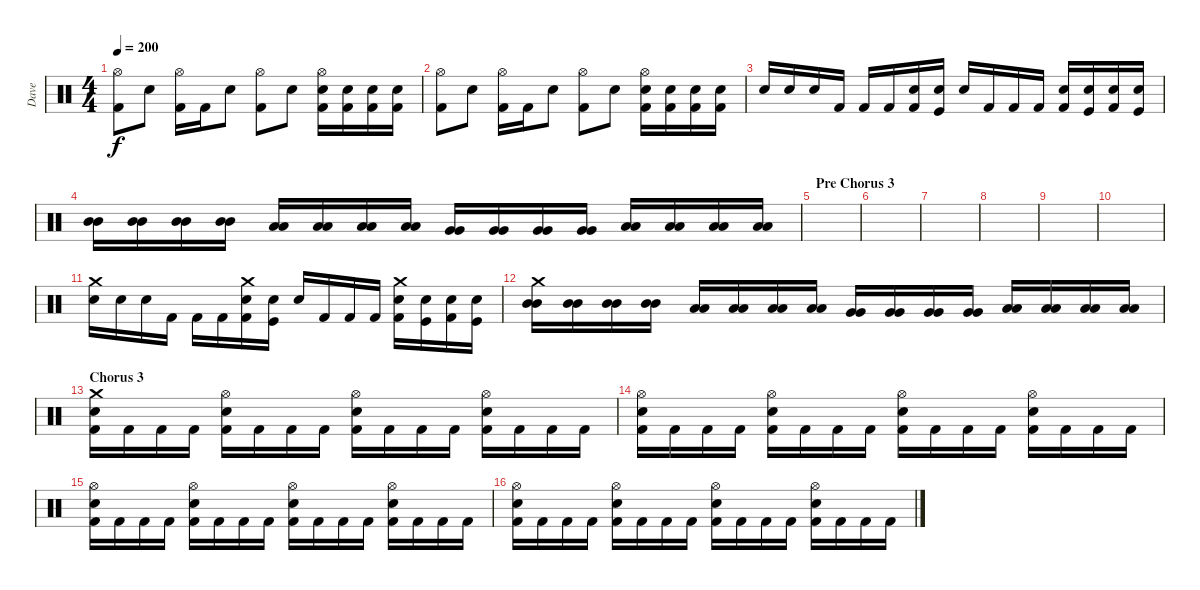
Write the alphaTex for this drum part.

\track ("Dave" "Dave") {instrument percussion}
\staff {score}
\articulation defaults
\ts (4 4)
\tempo 200
\clef neutral
\ks c
("Hi-Hat (open)" "Kick (hit) 2").8{dy f} "Snare (hit) 2".8 ("Hi-Hat (open)" "Kick (hit) 2").16 "Kick (hit) 2".16 "Snare (hit) 2".8 ("Hi-Hat (open)" "Kick (hit) 2").8 "Snare (hit) 2".8 ("Hi-Hat (open)" "Snare (hit) 2" "Kick (hit) 2").16 ("Snare (hit) 2" "Kick (hit) 2").16 ("Snare (hit) 2" "Kick (hit) 2").16 ("Snare (hit) 2" "Kick (hit) 2").16 |
("Hi-Hat (open)" "Kick (hit) 2").8 "Snare (hit) 2".8 ("Hi-Hat (open)" "Kick (hit) 2").16 "Kick (hit) 2".16 "Snare (hit) 2".8 ("Hi-Hat (open)" "Kick (hit) 2").8 "Snare (hit) 2".8 ("Hi-Hat (open)" "Snare (hit) 2" "Kick (hit) 2").16 ("Snare (hit) 2" "Kick (hit) 2").16 ("Snare (hit) 2" "Kick (hit) 2").16 ("Snare (hit) 2" "Kick (hit) 2").16 |
"Snare (hit) 2".16 "Snare (hit) 2".16 "Snare (hit) 2".16 "Kick (hit) 2".16 "Kick (hit) 2".16 "Kick (hit) 2".16 ("Snare (hit) 2" "Kick (hit) 2"{x}).16 ("Snare (hit) 2" "Kick (hit)"{x}).16 "Snare (hit) 2".16 "Kick (hit) 2".16 "Kick (hit) 2".16 "Kick (hit) 2".16 ("Snare (hit) 2" "Kick (hit) 2"{x}).16 ("Snare (hit) 2" "Kick (hit)"{x}).16 ("Snare (hit) 2" "Kick (hit) 2"{x}).16 ("Snare (hit) 2" "Kick (hit)"{x}).16 |
("Mid Tom (hit)" "Mid Tom (hit)").16 ("Mid Tom (hit)" "Mid Tom (hit)").16 ("Mid Tom (hit)" "Mid Tom (hit)").16 ("Mid Tom (hit)" "Mid Tom (hit)").16 ("Low Tom (hit)" "Low Tom (hit)").16 ("Low Tom (hit)" "Low Tom (hit)").16 ("Low Tom (hit)" "Low Tom (hit)").16 ("Low Tom (hit)" "Low Tom (hit)").16 ("Very Low Tom (hit)" "Very Low Tom (hit)").16 ("Very Low Tom (hit)" "Very Low Tom (hit)").16 ("Very Low Tom (hit)" "Very Low Tom (hit)").16 ("Very Low Tom (hit)" "Very Low Tom (hit)").16 ("Low Floor Tom (hit)" "Low Floor Tom (hit)").16 ("Low Floor Tom (hit)" "Low Floor Tom (hit)").16 ("Low Floor Tom (hit)" "Low Floor Tom (hit)").16 ("Low Floor Tom (hit)" "Low Floor Tom (hit)").16 |
\section ("" "Pre Chorus 3")
|
|
|
|
|
|
("Crash medium (hit)" "Snare (hit) 2").16 "Snare (hit) 2".16 "Snare (hit) 2".16 "Kick (hit) 2".16 "Kick (hit) 2".16 "Kick (hit) 2".16 ("Crash medium (hit)" "Snare (hit) 2" "Kick (hit) 2"{x}).16 ("Snare (hit) 2" "Kick (hit)"{x}).16 "Snare (hit) 2".16 "Kick (hit) 2".16 "Kick (hit) 2".16 "Kick (hit) 2".16 ("Crash medium (hit)" "Snare (hit) 2" "Kick (hit) 2"{x}).16 ("Snare (hit) 2" "Kick (hit)"{x}).16 ("Snare (hit) 2" "Kick (hit) 2"{x}).16 ("Snare (hit) 2" "Kick (hit)"{x}).16 |
("Crash medium (hit)" "Mid Tom (hit)" "Mid Tom (hit)").16 ("Mid Tom (hit)" "Mid Tom (hit)").16 ("Mid Tom (hit)" "Mid Tom (hit)").16 ("Mid Tom (hit)" "Mid Tom (hit)").16 ("Low Tom (hit)" "Low Tom (hit)").16 ("Low Tom (hit)" "Low Tom (hit)").16 ("Low Tom (hit)" "Low Tom (hit)").16 ("Low Tom (hit)" "Low Tom (hit)").16 ("Very Low Tom (hit)" "Very Low Tom (hit)").16 ("Very Low Tom (hit)" "Very Low Tom (hit)").16 ("Very Low Tom (hit)" "Very Low Tom (hit)").16 ("Very Low Tom (hit)" "Very Low Tom (hit)").16 ("Low Floor Tom (hit)" "Low Floor Tom (hit)").16 ("Low Floor Tom (hit)" "Low Floor Tom (hit)").16 ("Low Floor Tom (hit)" "Low Floor Tom (hit)").16 ("Low Floor Tom (hit)" "Low Floor Tom (hit)").16 |
\section ("" "Chorus 3")
("Crash medium (hit)" "Snare (hit) 2" "Kick (hit) 2").16 "Kick (hit) 2".16 "Kick (hit) 2".16 "Kick (hit) 2".16 ("Hi-Hat (open)" "Snare (hit) 2" "Kick (hit) 2").16 "Kick (hit) 2".16 "Kick (hit) 2".16 "Kick (hit) 2".16 ("Hi-Hat (open)" "Snare (hit) 2" "Kick (hit) 2").16 "Kick (hit) 2".16 "Kick (hit) 2".16 "Kick (hit) 2".16 ("Hi-Hat (open)" "Snare (hit) 2" "Kick (hit) 2").16 "Kick (hit) 2".16 "Kick (hit) 2".16 "Kick (hit) 2".16 |
("Hi-Hat (open)" "Snare (hit) 2" "Kick (hit) 2").16 "Kick (hit) 2".16 "Kick (hit) 2".16 "Kick (hit) 2".16 ("Hi-Hat (open)" "Snare (hit) 2" "Kick (hit) 2").16 "Kick (hit) 2".16 "Kick (hit) 2".16 "Kick (hit) 2".16 ("Hi-Hat (open)" "Snare (hit) 2" "Kick (hit) 2").16 "Kick (hit) 2".16 "Kick (hit) 2".16 "Kick (hit) 2".16 ("Hi-Hat (open)" "Snare (hit) 2" "Kick (hit) 2").16 "Kick (hit) 2".16 "Kick (hit) 2".16 "Kick (hit) 2".16 |
("Hi-Hat (open)" "Snare (hit) 2" "Kick (hit) 2").16 "Kick (hit) 2".16 "Kick (hit) 2".16 "Kick (hit) 2".16 ("Hi-Hat (open)" "Snare (hit) 2" "Kick (hit) 2").16 "Kick (hit) 2".16 "Kick (hit) 2".16 "Kick (hit) 2".16 ("Hi-Hat (open)" "Snare (hit) 2" "Kick (hit) 2").16 "Kick (hit) 2".16 "Kick (hit) 2".16 "Kick (hit) 2".16 ("Hi-Hat (open)" "Snare (hit) 2" "Kick (hit) 2").16 "Kick (hit) 2".16 "Kick (hit) 2".16 "Kick (hit) 2".16 |
("Hi-Hat (open)" "Snare (hit) 2" "Kick (hit) 2").16 "Kick (hit) 2".16 "Kick (hit) 2".16 "Kick (hit) 2".16 ("Hi-Hat (open)" "Snare (hit) 2" "Kick (hit) 2").16 "Kick (hit) 2".16 "Kick (hit) 2".16 "Kick (hit) 2".16 ("Hi-Hat (open)" "Snare (hit) 2" "Kick (hit) 2").16 "Kick (hit) 2".16 "Kick (hit) 2".16 "Kick (hit) 2".16 ("Hi-Hat (open)" "Snare (hit) 2" "Kick (hit) 2").16 "Kick (hit) 2".16 "Kick (hit) 2".16 "Kick (hit) 2".16
